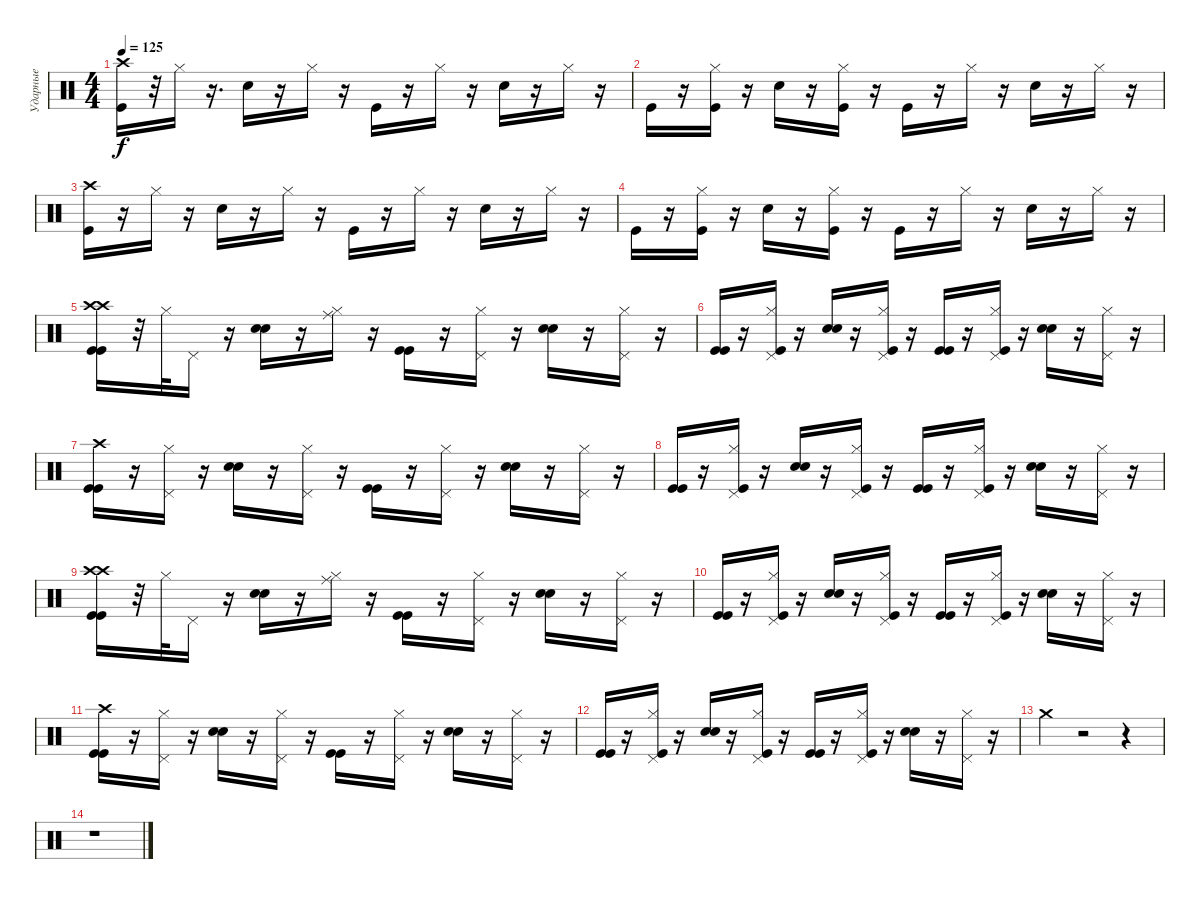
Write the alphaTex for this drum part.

\track ("Ударные" "Ударные") {instrument percussion}
\staff {score}
\articulation defaults
\ts (4 4)
\tempo 125
\clef neutral
\ks c
("Crash high (hit)" "Kick (hit)").16{dy f} r.32 "Hi-Hat (closed)".16 r.16{d} "Electric Snare (hit)".16 r.16 "Hi-Hat (closed)".16 r.16 "Kick (hit)".16 r.16 "Hi-Hat (closed)".16 r.16 "Electric Snare (hit)".16 r.16 "Hi-Hat (closed)".16 r.16 |
"Kick (hit)".16 r.16 ("Hi-Hat (closed)" "Kick (hit)").16 r.16 "Electric Snare (hit)".16 r.16 ("Hi-Hat (closed)" "Kick (hit)").16 r.16 "Kick (hit)".16 r.16 "Hi-Hat (closed)".16 r.16 "Electric Snare (hit)".16 r.16 "Hi-Hat (closed)".16 r.16 |
("Crash high (hit)" "Kick (hit)").16 r.16 "Hi-Hat (closed)".16 r.16 "Electric Snare (hit)".16 r.16 "Hi-Hat (closed)".16 r.16 "Kick (hit)".16 r.16 "Hi-Hat (closed)".16 r.16 "Electric Snare (hit)".16 r.16 "Hi-Hat (closed)".16 r.16 |
"Kick (hit)".16 r.16 ("Hi-Hat (closed)" "Kick (hit)").16 r.16 "Electric Snare (hit)".16 r.16 ("Hi-Hat (closed)" "Kick (hit)").16 r.16 "Kick (hit)".16 r.16 "Hi-Hat (closed)".16 r.16 "Electric Snare (hit)".16 r.16 "Hi-Hat (closed)".16 r.16 |
("Kick (hit)" "Crash high (hit)" "Crash high (hit)" "Kick (hit)").16 r.32 "Hi-Hat (closed)".32 "Pedal Hi-Hat (hit)".16 r.16 ("Electric Snare (hit)" "Electric Snare (hit)").16 r.16 ("Ride (middle)" "Hi-Hat (closed)").16 r.16 ("Kick (hit)" "Kick (hit)").16 r.16 ("Pedal Hi-Hat (hit)" "Hi-Hat (closed)").16 r.16 ("Electric Snare (hit)" "Electric Snare (hit)").16 r.16 ("Pedal Hi-Hat (hit)" "Hi-Hat (closed)").16 r.16 |
("Kick (hit)" "Kick (hit)").16 r.16 ("Pedal Hi-Hat (hit)" "Hi-Hat (closed)" "Kick (hit)").16 r.16 ("Electric Snare (hit)" "Electric Snare (hit)").16 r.16 ("Pedal Hi-Hat (hit)" "Hi-Hat (closed)" "Kick (hit)").16 r.16 ("Kick (hit)" "Kick (hit)").16 r.16 ("Kick (hit)" "Pedal Hi-Hat (hit)" "Hi-Hat (closed)").16 r.16 ("Electric Snare (hit)" "Electric Snare (hit)").16 r.16 ("Pedal Hi-Hat (hit)" "Hi-Hat (closed)").16 r.16 |
("Kick (hit)" "Crash high (hit)" "Kick (hit)").16 r.16 ("Pedal Hi-Hat (hit)" "Hi-Hat (closed)").16 r.16 ("Electric Snare (hit)" "Electric Snare (hit)").16 r.16 ("Pedal Hi-Hat (hit)" "Hi-Hat (closed)").16 r.16 ("Kick (hit)" "Kick (hit)").16 r.16 ("Pedal Hi-Hat (hit)" "Hi-Hat (closed)").16 r.16 ("Electric Snare (hit)" "Electric Snare (hit)").16 r.16 ("Pedal Hi-Hat (hit)" "Hi-Hat (closed)").16 r.16 |
("Kick (hit)" "Kick (hit)").16 r.16 ("Pedal Hi-Hat (hit)" "Hi-Hat (closed)" "Kick (hit)").16 r.16 ("Electric Snare (hit)" "Electric Snare (hit)").16 r.16 ("Pedal Hi-Hat (hit)" "Hi-Hat (closed)" "Kick (hit)").16 r.16 ("Kick (hit)" "Kick (hit)").16 r.16 ("Kick (hit)" "Pedal Hi-Hat (hit)" "Hi-Hat (closed)").16 r.16 ("Electric Snare (hit)" "Electric Snare (hit)").16 r.16 ("Pedal Hi-Hat (hit)" "Hi-Hat (closed)").16 r.16 |
("Kick (hit)" "Crash high (hit)" "Crash high (hit)" "Kick (hit)").16 r.32 "Hi-Hat (closed)".32 "Pedal Hi-Hat (hit)".16 r.16 ("Electric Snare (hit)" "Electric Snare (hit)").16 r.16 ("Ride (middle)" "Hi-Hat (closed)").16 r.16 ("Kick (hit)" "Kick (hit)").16 r.16 ("Pedal Hi-Hat (hit)" "Hi-Hat (closed)").16 r.16 ("Electric Snare (hit)" "Electric Snare (hit)").16 r.16 ("Pedal Hi-Hat (hit)" "Hi-Hat (closed)").16 r.16 |
("Kick (hit)" "Kick (hit)").16 r.16 ("Pedal Hi-Hat (hit)" "Hi-Hat (closed)" "Kick (hit)").16 r.16 ("Electric Snare (hit)" "Electric Snare (hit)").16 r.16 ("Pedal Hi-Hat (hit)" "Hi-Hat (closed)" "Kick (hit)").16 r.16 ("Kick (hit)" "Kick (hit)").16 r.16 ("Kick (hit)" "Pedal Hi-Hat (hit)" "Hi-Hat (closed)").16 r.16 ("Electric Snare (hit)" "Electric Snare (hit)").16 r.16 ("Pedal Hi-Hat (hit)" "Hi-Hat (closed)").16 r.16 |
("Kick (hit)" "Crash high (hit)" "Kick (hit)").16 r.16 ("Pedal Hi-Hat (hit)" "Hi-Hat (closed)").16 r.16 ("Electric Snare (hit)" "Electric Snare (hit)").16 r.16 ("Pedal Hi-Hat (hit)" "Hi-Hat (closed)").16 r.16 ("Kick (hit)" "Kick (hit)").16 r.16 ("Pedal Hi-Hat (hit)" "Hi-Hat (closed)").16 r.16 ("Electric Snare (hit)" "Electric Snare (hit)").16 r.16 ("Pedal Hi-Hat (hit)" "Hi-Hat (closed)").16 r.16 |
("Kick (hit)" "Kick (hit)").16 r.16 ("Pedal Hi-Hat (hit)" "Hi-Hat (closed)" "Kick (hit)").16 r.16 ("Electric Snare (hit)" "Electric Snare (hit)").16 r.16 ("Pedal Hi-Hat (hit)" "Hi-Hat (closed)" "Kick (hit)").16 r.16 ("Kick (hit)" "Kick (hit)").16 r.16 ("Kick (hit)" "Pedal Hi-Hat (hit)" "Hi-Hat (closed)").16 r.16 ("Electric Snare (hit)" "Electric Snare (hit)").16 r.16 ("Pedal Hi-Hat (hit)" "Hi-Hat (closed)").16 r.16 |
"Crash medium (hit)".4 r.2 r.4 |
r.1
